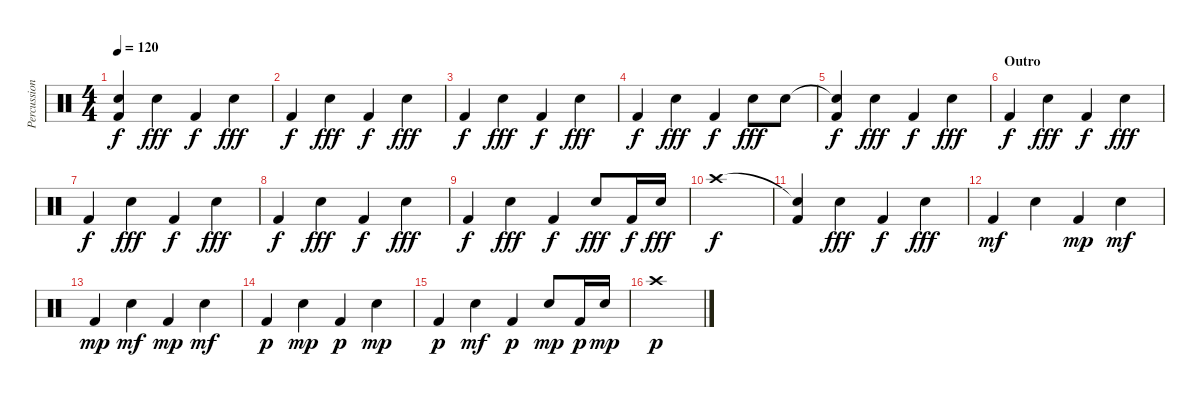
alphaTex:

\track ("Percussion" "Percussion") {instrument percussion}
\staff {score}
\articulation defaults
\ts (4 4)
\tempo 120
\clef neutral
\ks c
("Snare (hit)"{t} "Kick (hit) 2").4{dy f} "Electric Snare (hit)".4{dy fff} "Kick (hit) 2".4{dy f} "Electric Snare (hit)".4{dy fff} |
"Kick (hit) 2".4{dy f} "Electric Snare (hit)".4{dy fff} "Kick (hit) 2".4{dy f} "Electric Snare (hit)".4{dy fff} |
"Kick (hit) 2".4{dy f} "Electric Snare (hit)".4{dy fff} "Kick (hit) 2".4{dy f} "Electric Snare (hit)".4{dy fff} |
"Kick (hit) 2".4{dy f} "Electric Snare (hit)".4{dy fff} "Kick (hit) 2".4{dy f} "Electric Snare (hit)".8{dy fff} "Electric Snare (hit)".8 |
("Snare (hit)"{t} "Kick (hit) 2").4{dy f} "Electric Snare (hit)".4{dy fff} "Kick (hit) 2".4{dy f} "Electric Snare (hit)".4{dy fff} |
\section ("" "Outro")
"Kick (hit) 2".4{dy f} "Electric Snare (hit)".4{dy fff} "Kick (hit) 2".4{dy f} "Electric Snare (hit)".4{dy fff} |
"Kick (hit) 2".4{dy f} "Electric Snare (hit)".4{dy fff} "Kick (hit) 2".4{dy f} "Electric Snare (hit)".4{dy fff} |
"Kick (hit) 2".4{dy f} "Electric Snare (hit)".4{dy fff} "Kick (hit) 2".4{dy f} "Electric Snare (hit)".4{dy fff} |
"Kick (hit) 2".4{dy f} "Electric Snare (hit)".4{dy fff} "Kick (hit) 2".4{dy f} "Electric Snare (hit)".8{dy fff} "Kick (hit) 2".16{dy f} "Electric Snare (hit)".16{dy fff} |
"Crash high (hit)".1{dy f} |
("Snare (hit)"{t} "Kick (hit) 2").4 "Electric Snare (hit)".4{dy fff} "Kick (hit) 2".4{dy f} "Electric Snare (hit)".4{dy fff} |
"Kick (hit) 2".4{dy mf} "Electric Snare (hit)".4 "Kick (hit) 2".4{dy mp} "Electric Snare (hit)".4{dy mf} |
"Kick (hit) 2".4{dy mp} "Electric Snare (hit)".4{dy mf} "Kick (hit) 2".4{dy mp} "Electric Snare (hit)".4{dy mf} |
"Kick (hit) 2".4{dy p} "Electric Snare (hit)".4{dy mp} "Kick (hit) 2".4{dy p} "Electric Snare (hit)".4{dy mp} |
"Kick (hit) 2".4{dy p} "Electric Snare (hit)".4{dy mf} "Kick (hit) 2".4{dy p} "Electric Snare (hit)".8{dy mp} "Kick (hit) 2".16{dy p} "Electric Snare (hit)".16{dy mp} |
"Crash high (hit)".1{dy p}
